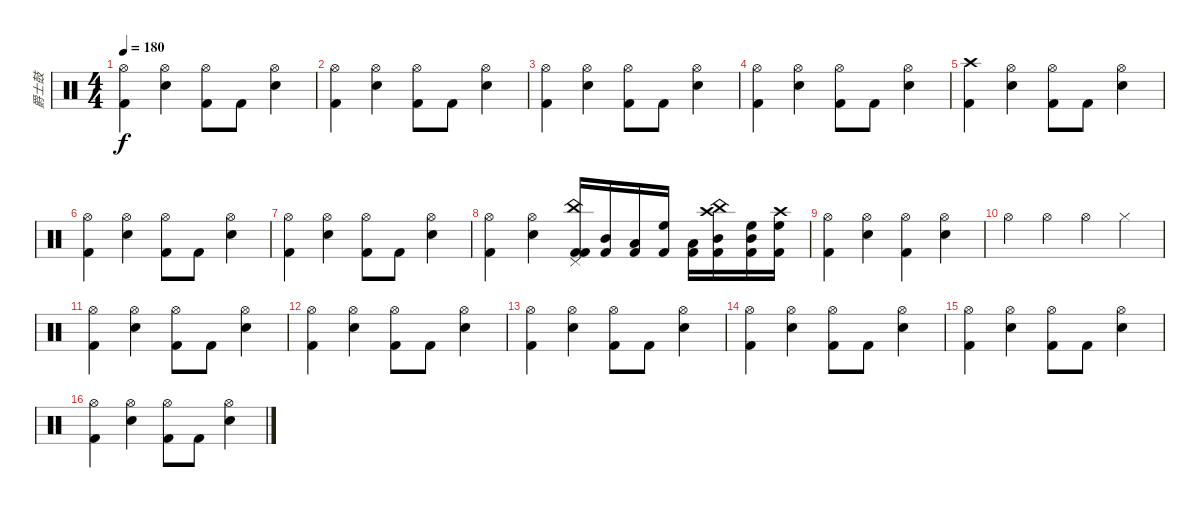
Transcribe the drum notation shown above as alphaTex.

\track ("爵士鼓" "爵士鼓") {instrument percussion}
\staff {score}
\articulation defaults
\ts (4 4)
\tempo 180
\clef neutral
\ks c
("Hi-Hat (open)" "Kick (hit) 2").4{dy f} ("Hi-Hat (open)" "Snare (hit) 2").4 ("Hi-Hat (open)" "Kick (hit) 2").8 "Kick (hit) 2".8 ("Hi-Hat (open)" "Snare (hit) 2").4 |
("Hi-Hat (open)" "Kick (hit) 2").4 ("Hi-Hat (open)" "Snare (hit) 2").4 ("Hi-Hat (open)" "Kick (hit) 2").8 "Kick (hit) 2".8 ("Hi-Hat (open)" "Snare (hit) 2").4 |
("Hi-Hat (open)" "Kick (hit) 2").4 ("Hi-Hat (open)" "Snare (hit) 2").4 ("Hi-Hat (open)" "Kick (hit) 2").8 "Kick (hit) 2".8 ("Hi-Hat (open)" "Snare (hit) 2").4 |
("Hi-Hat (open)" "Kick (hit) 2").4 ("Hi-Hat (open)" "Snare (hit) 2").4 ("Hi-Hat (open)" "Kick (hit) 2").8 "Kick (hit) 2".8 ("Hi-Hat (open)" "Snare (hit) 2").4 |
("Crash high (hit)" "Kick (hit) 2").4 ("Hi-Hat (open)" "Snare (hit) 2").4 ("Hi-Hat (open)" "Kick (hit) 2").8 "Kick (hit) 2".8 ("Hi-Hat (open)" "Snare (hit) 2").4 |
("Hi-Hat (open)" "Kick (hit) 2").4 ("Hi-Hat (open)" "Snare (hit) 2").4 ("Hi-Hat (open)" "Kick (hit) 2").8 "Kick (hit) 2".8 ("Hi-Hat (open)" "Snare (hit) 2").4 |
("Hi-Hat (open)" "Kick (hit) 2").4 ("Hi-Hat (open)" "Snare (hit) 2").4 ("Hi-Hat (open)" "Kick (hit) 2").8 "Kick (hit) 2".8 ("Hi-Hat (open)" "Snare (hit) 2").4 |
("Hi-Hat (open)" "Kick (hit) 2").4 ("Hi-Hat (open)" "Snare (hit) 2").4 ("China (hit)" "Pedal Hi-Hat (hit)" "Kick (hit) 2" "Kick (hit) 2").16 ("Mid Tom (hit)" "Kick (hit) 2").16 ("Low Tom (hit)" "Kick (hit) 2").16 ("High Floor Tom (hit)" "Kick (hit) 2").16 ("Low Tom (hit)" "Kick (hit) 2").16 ("Crash high (hit)" "China (hit)" "Mid Tom (hit)" "Kick (hit) 2").16 ("High Floor Tom (hit)" "Mid Tom (hit)" "Kick (hit) 2").16 ("Crash high (hit)" "High Floor Tom (hit)" "Kick (hit) 2").16 |
("Hi-Hat (open)" "Kick (hit) 2").4 ("Hi-Hat (open)" "Snare (hit) 2").4 ("Hi-Hat (open)" "Kick (hit) 2").4 ("Hi-Hat (open)" "Snare (hit) 2").4 |
"Hi-Hat (open)".4 "Hi-Hat (open)".4 "Hi-Hat (open)".4 "Hi-Hat (closed)".4 |
("Hi-Hat (open)" "Kick (hit) 2").4 ("Hi-Hat (open)" "Snare (hit) 2").4 ("Hi-Hat (open)" "Kick (hit) 2").8 "Kick (hit) 2".8 ("Hi-Hat (open)" "Snare (hit) 2").4 |
("Hi-Hat (open)" "Kick (hit) 2").4 ("Hi-Hat (open)" "Snare (hit) 2").4 ("Hi-Hat (open)" "Kick (hit) 2").8 "Kick (hit) 2".8 ("Hi-Hat (open)" "Snare (hit) 2").4 |
("Hi-Hat (open)" "Kick (hit) 2").4 ("Hi-Hat (open)" "Snare (hit) 2").4 ("Hi-Hat (open)" "Kick (hit) 2").8 "Kick (hit) 2".8 ("Hi-Hat (open)" "Snare (hit) 2").4 |
("Hi-Hat (open)" "Kick (hit) 2").4 ("Hi-Hat (open)" "Snare (hit) 2").4 ("Hi-Hat (open)" "Kick (hit) 2").8 "Kick (hit) 2".8 ("Hi-Hat (open)" "Snare (hit) 2").4 |
("Hi-Hat (open)" "Kick (hit) 2").4 ("Hi-Hat (open)" "Snare (hit) 2").4 ("Hi-Hat (open)" "Kick (hit) 2").8 "Kick (hit) 2".8 ("Hi-Hat (open)" "Snare (hit) 2").4 |
("Hi-Hat (open)" "Kick (hit) 2").4 ("Hi-Hat (open)" "Snare (hit) 2").4 ("Hi-Hat (open)" "Kick (hit) 2").8 "Kick (hit) 2".8 ("Hi-Hat (open)" "Snare (hit) 2").4
